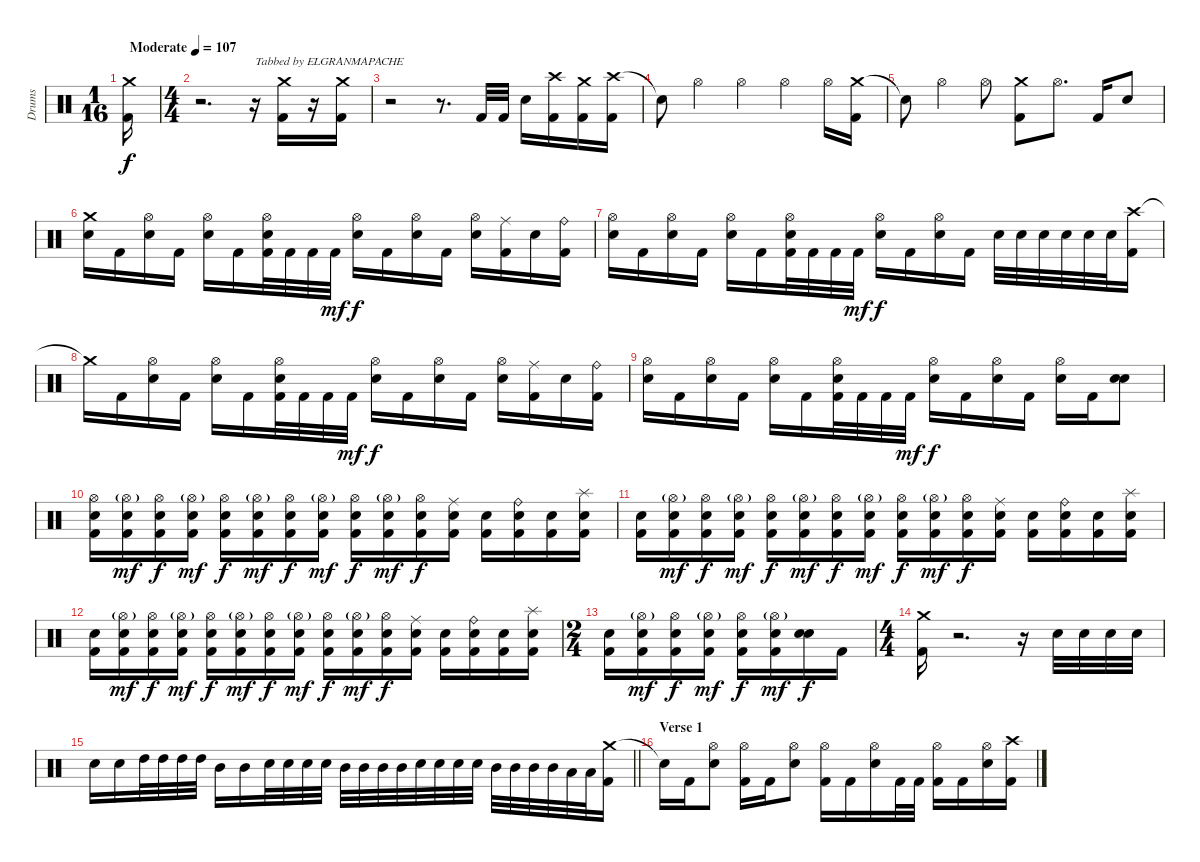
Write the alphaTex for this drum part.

\track ("Drums" "Drums") {instrument percussion}
\staff {score}
\articulation defaults
\ts (1 16)
\tempo (107 "Moderate")
\clef neutral
\ks c
("Crash medium (hit)" "Kick (hit) 2").16{dy f} |
\ts (4 4)
r.2{d} r.16{txt "Tabbed by ELGRANMAPACHE"} ("Crash medium (hit)" "Kick (hit) 2").16 r.16 ("Crash medium (hit)" "Kick (hit) 2").16 |
r.2 r.8{d} "Kick (hit) 2".32 "Kick (hit) 2".32 "Electric Snare (hit)".16 ("Crash high (hit)" "Kick (hit) 2").16 ("Crash medium (hit)" "Kick (hit) 2").16 ("Crash high (hit)" "Kick (hit) 2").16 |
"Snare (hit)"{t}.8 "Hi-Hat (open)".4 "Hi-Hat (open)".4 "Hi-Hat (open)".4 "Hi-Hat (open)".16 ("Crash medium (hit)" "Kick (hit) 2").16 |
"Snare (hit)"{t}.8 "Hi-Hat (open)".4 "Hi-Hat (open)".8 ("Crash medium (hit)" "Kick (hit) 2").8 "Hi-Hat (open)".8{d} "Kick (hit) 2".16 "Electric Snare (hit)".8 |
("Crash medium (hit)" "Electric Snare (hit)").16 "Kick (hit) 2".16 ("Hi-Hat (open)" "Electric Snare (hit)").16 "Kick (hit) 2".16 ("Hi-Hat (open)" "Electric Snare (hit)").16 "Kick (hit) 2".16 ("Hi-Hat (open)" "Electric Snare (hit)" "Kick (hit) 2").32 "Kick (hit) 2".32 "Kick (hit) 2".32 "Kick (hit) 2".32{dy mf} ("Hi-Hat (open)" "Electric Snare (hit)").16{dy f} "Kick (hit) 2".16 ("Hi-Hat (open)" "Electric Snare (hit)").16 "Kick (hit) 2".16 ("Hi-Hat (open)" "Electric Snare (hit)").16 ("Ride (middle)" "Kick (hit) 2").16 "Electric Snare (hit)".16 ("Ride (bell)" "Kick (hit) 2").16 |
("Hi-Hat (open)" "Electric Snare (hit)").16 "Kick (hit) 2".16 ("Hi-Hat (open)" "Electric Snare (hit)").16 "Kick (hit) 2".16 ("Hi-Hat (open)" "Electric Snare (hit)").16 "Kick (hit) 2".16 ("Hi-Hat (open)" "Electric Snare (hit)" "Kick (hit) 2").32 "Kick (hit) 2".32 "Kick (hit) 2".32 "Kick (hit) 2".32{dy mf} ("Hi-Hat (open)" "Electric Snare (hit)").16{dy f} "Kick (hit) 2".16 ("Hi-Hat (open)" "Electric Snare (hit)").16 "Kick (hit) 2".16 "Electric Snare (hit)".32 "Electric Snare (hit)".32 "Electric Snare (hit)".32 "Electric Snare (hit)".32 "Electric Snare (hit)".32 "Electric Snare (hit)".32 ("Crash high (hit)" "Kick (hit) 2").16 |
"Crash medium (hit)"{t}.16 "Kick (hit) 2".16 ("Hi-Hat (open)" "Electric Snare (hit)").16 "Kick (hit) 2".16 ("Hi-Hat (open)" "Electric Snare (hit)").16 "Kick (hit) 2".16 ("Hi-Hat (open)" "Electric Snare (hit)" "Kick (hit) 2").32 "Kick (hit) 2".32 "Kick (hit) 2".32 "Kick (hit) 2".32{dy mf} ("Hi-Hat (open)" "Electric Snare (hit)").16{dy f} "Kick (hit) 2".16 ("Hi-Hat (open)" "Electric Snare (hit)").16 "Kick (hit) 2".16 ("Hi-Hat (open)" "Electric Snare (hit)").16 ("Ride (middle)" "Kick (hit) 2").16 "Electric Snare (hit)".16 ("Ride (bell)" "Kick (hit) 2").16 |
("Hi-Hat (open)" "Electric Snare (hit)").16 "Kick (hit) 2".16 ("Hi-Hat (open)" "Electric Snare (hit)").16 "Kick (hit) 2".16 ("Hi-Hat (open)" "Electric Snare (hit)").16 "Kick (hit) 2".16 ("Hi-Hat (open)" "Electric Snare (hit)" "Kick (hit) 2").32 "Kick (hit) 2".32 "Kick (hit) 2".32 "Kick (hit) 2".32{dy mf} ("Hi-Hat (open)" "Electric Snare (hit)").16{dy f} "Kick (hit) 2".16 ("Hi-Hat (open)" "Electric Snare (hit)").16 "Kick (hit) 2".16 ("Hi-Hat (open)" "Electric Snare (hit)").16 "Kick (hit) 2".16 ("Electric Snare (hit)" "Electric Snare (hit)").8 |
("Hi-Hat (open)" "Electric Snare (hit)" "Kick (hit) 2").16 ("Hi-Hat (open)"{g} "Electric Snare (hit)" "Kick (hit) 2").16{dy mf} ("Hi-Hat (open)" "Electric Snare (hit)" "Kick (hit) 2").16{dy f} ("Hi-Hat (open)"{g} "Electric Snare (hit)" "Kick (hit) 2").16{dy mf} ("Hi-Hat (open)" "Electric Snare (hit)" "Kick (hit) 2").16{dy f} ("Hi-Hat (open)"{g} "Electric Snare (hit)" "Kick (hit) 2").16{dy mf} ("Hi-Hat (open)" "Electric Snare (hit)" "Kick (hit) 2").16{dy f} ("Hi-Hat (open)"{g} "Electric Snare (hit)" "Kick (hit) 2").16{dy mf} ("Hi-Hat (open)" "Electric Snare (hit)" "Kick (hit) 2").16{dy f} ("Hi-Hat (open)"{g} "Electric Snare (hit)" "Kick (hit) 2").16{dy mf} ("Hi-Hat (open)" "Electric Snare (hit)" "Kick (hit) 2").16{dy f} ("Ride (middle)" "Electric Snare (hit)" "Kick (hit) 2").16 ("Electric Snare (hit)" "Kick (hit) 2").16 ("Ride (bell)" "Electric Snare (hit)" "Kick (hit) 2").16 ("Electric Snare (hit)" "Kick (hit) 2").16 ("Splash (hit)" "Electric Snare (hit)" "Kick (hit) 2").16 |
("Electric Snare (hit)" "Kick (hit) 2").16 ("Hi-Hat (open)"{g} "Electric Snare (hit)" "Kick (hit) 2").16{dy mf} ("Hi-Hat (open)" "Electric Snare (hit)" "Kick (hit) 2").16{dy f} ("Hi-Hat (open)"{g} "Electric Snare (hit)" "Kick (hit) 2").16{dy mf} ("Hi-Hat (open)" "Electric Snare (hit)" "Kick (hit) 2").16{dy f} ("Hi-Hat (open)"{g} "Electric Snare (hit)" "Kick (hit) 2").16{dy mf} ("Hi-Hat (open)" "Electric Snare (hit)" "Kick (hit) 2").16{dy f} ("Hi-Hat (open)"{g} "Electric Snare (hit)" "Kick (hit) 2").16{dy mf} ("Hi-Hat (open)" "Electric Snare (hit)" "Kick (hit) 2").16{dy f} ("Hi-Hat (open)"{g} "Electric Snare (hit)" "Kick (hit) 2").16{dy mf} ("Hi-Hat (open)" "Electric Snare (hit)" "Kick (hit) 2").16{dy f} ("Ride (middle)" "Electric Snare (hit)" "Kick (hit) 2").16 ("Electric Snare (hit)" "Kick (hit) 2").16 ("Ride (bell)" "Electric Snare (hit)" "Kick (hit) 2").16 ("Electric Snare (hit)" "Kick (hit) 2").16 ("Splash (hit)" "Electric Snare (hit)" "Kick (hit) 2").16 |
("Electric Snare (hit)" "Kick (hit) 2").16 ("Hi-Hat (open)"{g} "Electric Snare (hit)" "Kick (hit) 2").16{dy mf} ("Hi-Hat (open)" "Electric Snare (hit)" "Kick (hit) 2").16{dy f} ("Hi-Hat (open)"{g} "Electric Snare (hit)" "Kick (hit) 2").16{dy mf} ("Hi-Hat (open)" "Electric Snare (hit)" "Kick (hit) 2").16{dy f} ("Hi-Hat (open)"{g} "Electric Snare (hit)" "Kick (hit) 2").16{dy mf} ("Hi-Hat (open)" "Electric Snare (hit)" "Kick (hit) 2").16{dy f} ("Hi-Hat (open)"{g} "Electric Snare (hit)" "Kick (hit) 2").16{dy mf} ("Hi-Hat (open)" "Electric Snare (hit)" "Kick (hit) 2").16{dy f} ("Hi-Hat (open)"{g} "Electric Snare (hit)" "Kick (hit) 2").16{dy mf} ("Hi-Hat (open)" "Electric Snare (hit)" "Kick (hit) 2").16{dy f} ("Ride (middle)" "Electric Snare (hit)" "Kick (hit) 2").16 ("Electric Snare (hit)" "Kick (hit) 2").16 ("Ride (bell)" "Electric Snare (hit)" "Kick (hit) 2").16 ("Electric Snare (hit)" "Kick (hit) 2").16 ("Splash (hit)" "Electric Snare (hit)" "Kick (hit) 2").16 |
\ts (2 4)
("Electric Snare (hit)" "Kick (hit) 2").16 ("Hi-Hat (open)"{g} "Electric Snare (hit)" "Kick (hit) 2").16{dy mf} ("Hi-Hat (open)" "Electric Snare (hit)" "Kick (hit) 2").16{dy f} ("Hi-Hat (open)"{g} "Electric Snare (hit)" "Kick (hit) 2").16{dy mf} ("Hi-Hat (open)" "Electric Snare (hit)" "Kick (hit) 2").16{dy f} ("Hi-Hat (open)"{g} "Electric Snare (hit)" "Kick (hit) 2").16{dy mf} ("Electric Snare (hit)" "Electric Snare (hit)").16{dy f} "Kick (hit) 2".16 |
\ts (4 4)
("Crash medium (hit)" "Kick (hit) 2").16 r.2{d} r.16 "Electric Snare (hit)".32 "Electric Snare (hit)".32 "Electric Snare (hit)".32 "Electric Snare (hit)".32 |
\barLineRight lightlight "Electric Snare (hit)".16 "Electric Snare (hit)".16 "High Tom (hit)".32 "High Tom (hit)".32 "High Tom (hit)".32 "High Tom (hit)".32 "Mid Tom (hit)".16 "Mid Tom (hit)".16 "Electric Snare (hit)".32 "Electric Snare (hit)".32 "Electric Snare (hit)".32 "Electric Snare (hit)".32 "Mid Tom (hit)".32 "Mid Tom (hit)".32 "Mid Tom (hit)".32 "Mid Tom (hit)".32 "Electric Snare (hit)".32 "Electric Snare (hit)".32 "Electric Snare (hit)".32 "Electric Snare (hit)".32 "Mid Tom (hit)".32 "Mid Tom (hit)".32 "Mid Tom (hit)".32 "Mid Tom (hit)".32 "Low Tom (hit)".32 "Low Tom (hit)".32
("Crash medium (hit)" "Kick (hit) 2").16 |
\section ("" "Verse 1")
"Snare (hit)"{t}.16 "Kick (hit) 2".16 ("Hi-Hat (open)" "Electric Snare (hit)").8 ("Hi-Hat (open)" "Kick (hit) 2").16 "Kick (hit) 2".16 ("Hi-Hat (open)" "Electric Snare (hit)").8 ("Hi-Hat (open)" "Kick (hit) 2").16 "Kick (hit) 2".16 ("Hi-Hat (open)" "Electric Snare (hit)").16 "Kick (hit) 2".32 "Kick (hit) 2".32 ("Hi-Hat (open)" "Kick (hit) 2").16 "Kick (hit) 2".16 ("Hi-Hat (open)" "Electric Snare (hit)").16 ("Crash high (hit)" "Kick (hit) 2").16
